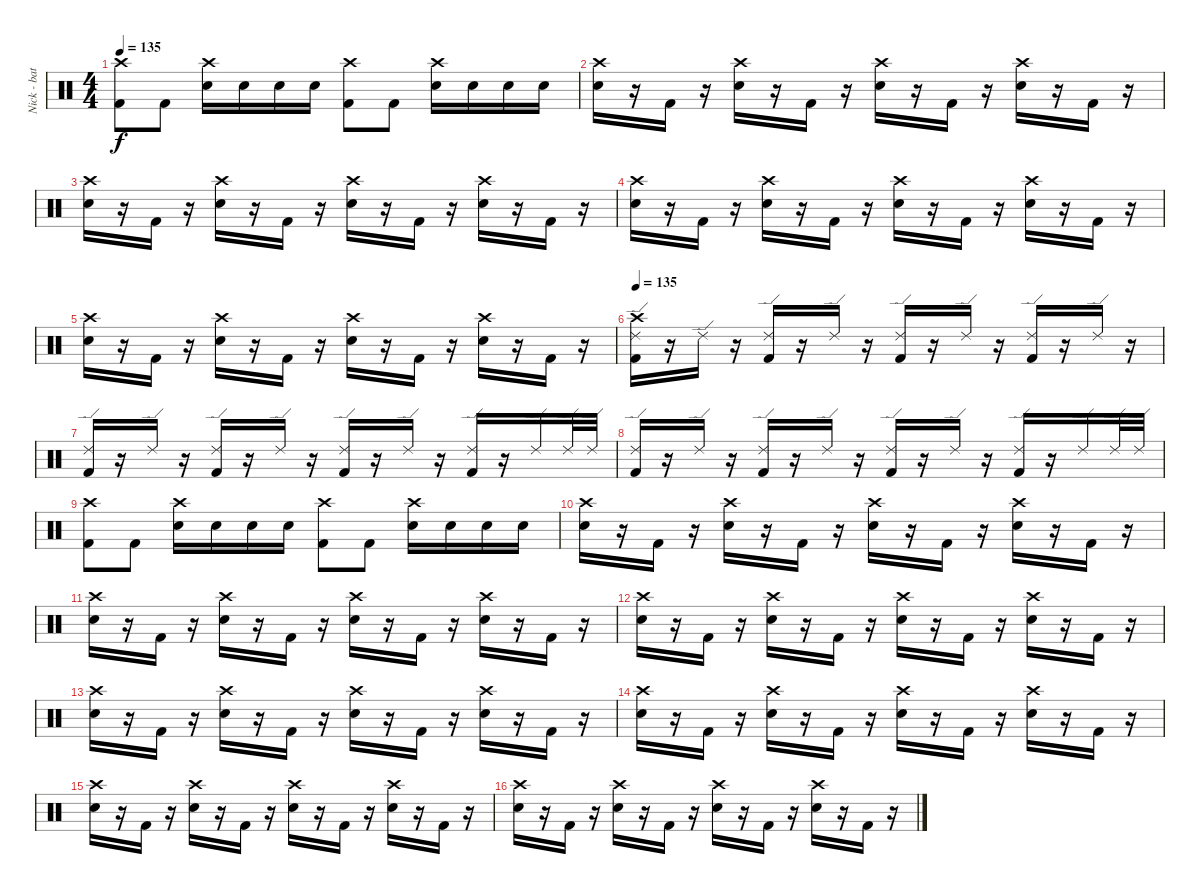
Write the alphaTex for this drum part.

\track ("Nick - batterie" "Nick - bat") {instrument percussion}
\staff {score}
\articulation defaults
\ts (4 4)
\tempo 135
\clef neutral
\ks c
("Crash high (hit)" "Kick (hit) 2").8{dy f} "Kick (hit) 2".8 ("Crash high (hit)" "Electric Snare (hit)").16 "Electric Snare (hit)".16 "Electric Snare (hit)".16 "Electric Snare (hit)".16 ("Crash high (hit)" "Kick (hit) 2").8 "Kick (hit) 2".8 ("Crash high (hit)" "Electric Snare (hit)").16 "Electric Snare (hit)".16 "Electric Snare (hit)".16 "Electric Snare (hit)".16 |
("Crash high (hit)" "Electric Snare (hit)").16 r.16 "Kick (hit) 2".16 r.16 ("Crash high (hit)" "Electric Snare (hit)").16 r.16 "Kick (hit) 2".16 r.16 ("Crash high (hit)" "Electric Snare (hit)").16 r.16 "Kick (hit) 2".16 r.16 ("Crash high (hit)" "Electric Snare (hit)").16 r.16 "Kick (hit) 2".16 r.16 |
("Crash high (hit)" "Electric Snare (hit)").16 r.16 "Kick (hit) 2".16 r.16 ("Crash high (hit)" "Electric Snare (hit)").16 r.16 "Kick (hit) 2".16 r.16 ("Crash high (hit)" "Electric Snare (hit)").16 r.16 "Kick (hit) 2".16 r.16 ("Crash high (hit)" "Electric Snare (hit)").16 r.16 "Kick (hit) 2".16 r.16 |
("Crash high (hit)" "Electric Snare (hit)").16 r.16 "Kick (hit) 2".16 r.16 ("Crash high (hit)" "Electric Snare (hit)").16 r.16 "Kick (hit) 2".16 r.16 ("Crash high (hit)" "Electric Snare (hit)").16 r.16 "Kick (hit) 2".16 r.16 ("Crash high (hit)" "Electric Snare (hit)").16 r.16 "Kick (hit) 2".16 r.16 |
("Crash high (hit)" "Electric Snare (hit)").16 r.16 "Kick (hit) 2".16 r.16 ("Crash high (hit)" "Electric Snare (hit)").16 r.16 "Kick (hit) 2".16 r.16 ("Crash high (hit)" "Electric Snare (hit)").16 r.16 "Kick (hit) 2".16 r.16 ("Crash high (hit)" "Electric Snare (hit)").16 r.16 "Kick (hit) 2".16 r.16 |
\tempo 135
("Crash high (hit)" "Ride (edge) 2" "Kick (hit) 2").16 r.16 "Ride (edge) 2".16 r.16 ("Ride (edge) 2" "Kick (hit) 2").16 r.16 "Ride (edge) 2".16 r.16 ("Ride (edge) 2" "Kick (hit) 2").16 r.16 "Ride (edge) 2".16 r.16 ("Ride (edge) 2" "Kick (hit) 2").16 r.16 "Ride (edge) 2".16 r.16 |
("Ride (edge) 2" "Kick (hit) 2").16 r.16 "Ride (edge) 2".16 r.16 ("Ride (edge) 2" "Kick (hit) 2").16 r.16 "Ride (edge) 2".16 r.16 ("Ride (edge) 2" "Kick (hit) 2").16 r.16 "Ride (edge) 2".16 r.16 ("Ride (edge) 2" "Kick (hit) 2").16 r.16 "Ride (edge) 2".16 "Ride (edge) 2".32 "Ride (edge) 2".32 |
("Ride (edge) 2" "Kick (hit) 2").16 r.16 "Ride (edge) 2".16 r.16 ("Ride (edge) 2" "Kick (hit) 2").16 r.16 "Ride (edge) 2".16 r.16 ("Ride (edge) 2" "Kick (hit) 2").16 r.16 "Ride (edge) 2".16 r.16 ("Ride (edge) 2" "Kick (hit) 2").16 r.16 "Ride (edge) 2".16 "Ride (edge) 2".32 "Ride (edge) 2".32 |
("Crash high (hit)" "Kick (hit) 2").8 "Kick (hit) 2".8 ("Crash high (hit)" "Electric Snare (hit)").16 "Electric Snare (hit)".16 "Electric Snare (hit)".16 "Electric Snare (hit)".16 ("Crash high (hit)" "Kick (hit) 2").8 "Kick (hit) 2".8 ("Crash high (hit)" "Electric Snare (hit)").16 "Electric Snare (hit)".16 "Electric Snare (hit)".16 "Electric Snare (hit)".16 |
("Crash high (hit)" "Electric Snare (hit)").16 r.16 "Kick (hit) 2".16 r.16 ("Crash high (hit)" "Electric Snare (hit)").16 r.16 "Kick (hit) 2".16 r.16 ("Crash high (hit)" "Electric Snare (hit)").16 r.16 "Kick (hit) 2".16 r.16 ("Crash high (hit)" "Electric Snare (hit)").16 r.16 "Kick (hit) 2".16 r.16 |
("Crash high (hit)" "Electric Snare (hit)").16 r.16 "Kick (hit) 2".16 r.16 ("Crash high (hit)" "Electric Snare (hit)").16 r.16 "Kick (hit) 2".16 r.16 ("Crash high (hit)" "Electric Snare (hit)").16 r.16 "Kick (hit) 2".16 r.16 ("Crash high (hit)" "Electric Snare (hit)").16 r.16 "Kick (hit) 2".16 r.16 |
("Crash high (hit)" "Electric Snare (hit)").16 r.16 "Kick (hit) 2".16 r.16 ("Crash high (hit)" "Electric Snare (hit)").16 r.16 "Kick (hit) 2".16 r.16 ("Crash high (hit)" "Electric Snare (hit)").16 r.16 "Kick (hit) 2".16 r.16 ("Crash high (hit)" "Electric Snare (hit)").16 r.16 "Kick (hit) 2".16 r.16 |
("Crash high (hit)" "Electric Snare (hit)").16 r.16 "Kick (hit) 2".16 r.16 ("Crash high (hit)" "Electric Snare (hit)").16 r.16 "Kick (hit) 2".16 r.16 ("Crash high (hit)" "Electric Snare (hit)").16 r.16 "Kick (hit) 2".16 r.16 ("Crash high (hit)" "Electric Snare (hit)").16 r.16 "Kick (hit) 2".16 r.16 |
("Crash high (hit)" "Electric Snare (hit)").16 r.16 "Kick (hit) 2".16 r.16 ("Crash high (hit)" "Electric Snare (hit)").16 r.16 "Kick (hit) 2".16 r.16 ("Crash high (hit)" "Electric Snare (hit)").16 r.16 "Kick (hit) 2".16 r.16 ("Crash high (hit)" "Electric Snare (hit)").16 r.16 "Kick (hit) 2".16 r.16 |
("Crash high (hit)" "Electric Snare (hit)").16 r.16 "Kick (hit) 2".16 r.16 ("Crash high (hit)" "Electric Snare (hit)").16 r.16 "Kick (hit) 2".16 r.16 ("Crash high (hit)" "Electric Snare (hit)").16 r.16 "Kick (hit) 2".16 r.16 ("Crash high (hit)" "Electric Snare (hit)").16 r.16 "Kick (hit) 2".16 r.16 |
("Crash high (hit)" "Electric Snare (hit)").16 r.16 "Kick (hit) 2".16 r.16 ("Crash high (hit)" "Electric Snare (hit)").16 r.16 "Kick (hit) 2".16 r.16 ("Crash high (hit)" "Electric Snare (hit)").16 r.16 "Kick (hit) 2".16 r.16 ("Crash high (hit)" "Electric Snare (hit)").16 r.16 "Kick (hit) 2".16 r.16
